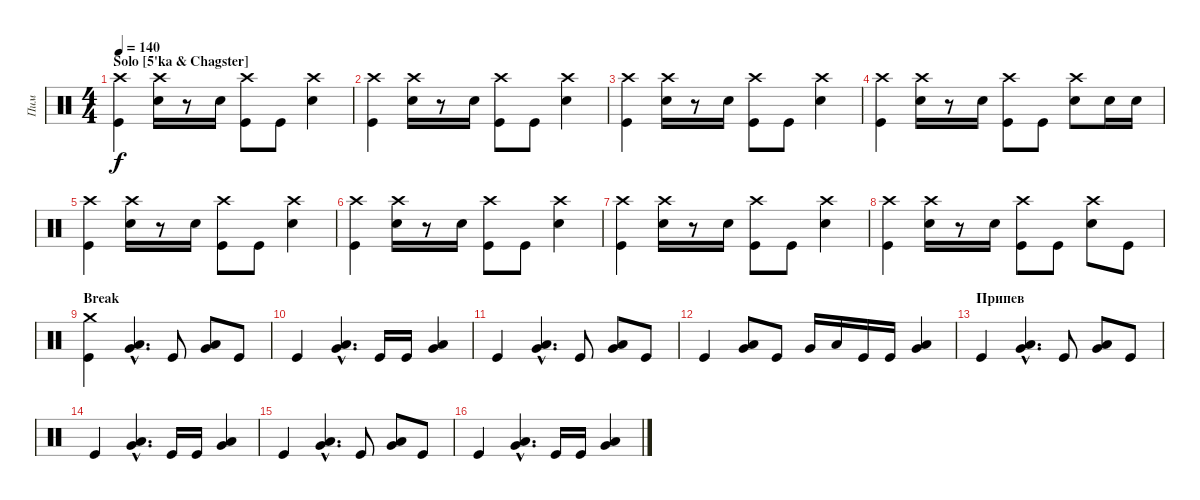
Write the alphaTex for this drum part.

\track ("Пим" "Пим") {instrument percussion}
\staff {score}
\articulation defaults
\ts (4 4)
\section ("" "Solo [5'ka & Chagster]")
\tempo 140
\clef neutral
\ks c
("Crash high (hit)" "Kick (hit)").4{dy f} ("Crash high (hit)" "Snare (hit) 2").16 r.8 "Snare (hit) 2".16 ("Crash high (hit)" "Kick (hit)").8 "Kick (hit)".8 ("Crash high (hit)" "Snare (hit) 2").4 |
("Crash high (hit)" "Kick (hit)").4 ("Crash high (hit)" "Snare (hit) 2").16 r.8 "Snare (hit) 2".16 ("Crash high (hit)" "Kick (hit)").8 "Kick (hit)".8 ("Crash high (hit)" "Snare (hit) 2").4 |
("Crash high (hit)" "Kick (hit)").4 ("Crash high (hit)" "Snare (hit) 2").16 r.8 "Snare (hit) 2".16 ("Crash high (hit)" "Kick (hit)").8 "Kick (hit)".8 ("Crash high (hit)" "Snare (hit) 2").4 |
("Crash high (hit)" "Kick (hit)").4 ("Crash high (hit)" "Snare (hit) 2").16 r.8 "Snare (hit) 2".16 ("Crash high (hit)" "Kick (hit)").8 "Kick (hit)".8 ("Crash high (hit)" "Snare (hit) 2").8 "Snare (hit) 2".16 "Snare (hit) 2".16 |
("Crash high (hit)" "Kick (hit)").4 ("Crash high (hit)" "Snare (hit) 2").16 r.8 "Snare (hit) 2".16 ("Crash high (hit)" "Kick (hit)").8 "Kick (hit)".8 ("Crash high (hit)" "Snare (hit) 2").4 |
("Crash high (hit)" "Kick (hit)").4 ("Crash high (hit)" "Snare (hit) 2").16 r.8 "Snare (hit) 2".16 ("Crash high (hit)" "Kick (hit)").8 "Kick (hit)".8 ("Crash high (hit)" "Snare (hit) 2").4 |
("Crash high (hit)" "Kick (hit)").4 ("Crash high (hit)" "Snare (hit) 2").16 r.8 "Snare (hit) 2".16 ("Crash high (hit)" "Kick (hit)").8 "Kick (hit)".8 ("Crash high (hit)" "Snare (hit) 2").4 |
("Crash high (hit)" "Kick (hit)").4 ("Crash high (hit)" "Snare (hit) 2").16 r.8 "Snare (hit) 2".16 ("Crash high (hit)" "Kick (hit)").8 "Kick (hit)".8 ("Crash high (hit)" "Snare (hit) 2").8 "Kick (hit)".8 |
\section ("" "Break")
("Crash medium (hit)" "Kick (hit)").4 ("Low Tom (hit)"{hac} "Very Low Tom (hit)"{hac}).4{d} "Kick (hit)".8 ("Very Low Tom (hit)" "Low Floor Tom (hit)").8 "Kick (hit)".8 |
"Kick (hit)".4 ("Low Tom (hit)"{hac} "Very Low Tom (hit)"{hac}).4{d} "Kick (hit)".16 "Kick (hit)".16 ("Very Low Tom (hit)" "Low Floor Tom (hit)").4 |
"Kick (hit)".4 ("Low Tom (hit)"{hac} "Very Low Tom (hit)"{hac}).4{d} "Kick (hit)".8 ("Very Low Tom (hit)" "Low Floor Tom (hit)").8 "Kick (hit)".8 |
"Kick (hit)".4 ("Low Tom (hit)" "Very Low Tom (hit)").8 "Kick (hit)".8 "Very Low Tom (hit)".16 "Low Floor Tom (hit)".16 "Kick (hit)".16 "Kick (hit)".16 ("Very Low Tom (hit)" "Low Floor Tom (hit)").4 |
\section ("" "Припев")
"Kick (hit)".4 ("Low Tom (hit)"{hac} "Very Low Tom (hit)"{hac}).4{d} "Kick (hit)".8 ("Very Low Tom (hit)" "Low Floor Tom (hit)").8 "Kick (hit)".8 |
"Kick (hit)".4 ("Low Tom (hit)"{hac} "Very Low Tom (hit)"{hac}).4{d} "Kick (hit)".16 "Kick (hit)".16 ("Very Low Tom (hit)" "Low Floor Tom (hit)").4 |
"Kick (hit)".4 ("Low Tom (hit)"{hac} "Very Low Tom (hit)"{hac}).4{d} "Kick (hit)".8 ("Very Low Tom (hit)" "Low Floor Tom (hit)").8 "Kick (hit)".8 |
"Kick (hit)".4 ("Low Tom (hit)"{hac} "Very Low Tom (hit)"{hac}).4{d} "Kick (hit)".16 "Kick (hit)".16 ("Very Low Tom (hit)" "Low Floor Tom (hit)").4
